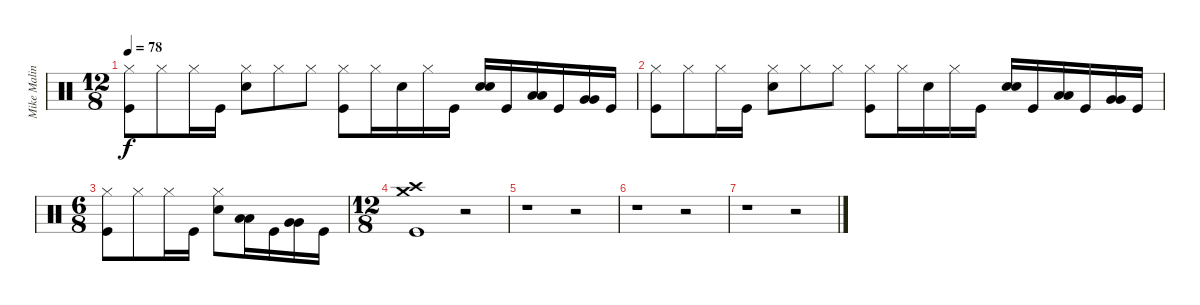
\track ("Mike Malinin (Drums)" "Mike Malin") {instrument percussion}
\staff {score}
\articulation defaults
\ts (12 8)
\tempo 78
\clef neutral
\ks c
("Hi-Hat (closed)" "Kick (hit)").8{dy f} "Hi-Hat (closed)".8 "Hi-Hat (closed)".16 "Kick (hit)".16 ("Hi-Hat (closed)" "Snare (hit) 2").8 "Hi-Hat (closed)".8 "Hi-Hat (closed)".8 ("Hi-Hat (closed)" "Kick (hit)").8 "Hi-Hat (closed)".16 "Snare (hit) 2".16 "Hi-Hat (closed)".16 "Kick (hit)".16 ("Snare (hit) 2" "Snare (hit) 2").16 "Kick (hit)".16 ("Low Tom (hit)" "Low Tom (hit)").16 "Kick (hit)".16 ("Very Low Tom (hit)" "Very Low Tom (hit)").16 "Kick (hit)".16 |
("Hi-Hat (closed)" "Kick (hit)").8 "Hi-Hat (closed)".8 "Hi-Hat (closed)".16 "Kick (hit)".16 ("Hi-Hat (closed)" "Snare (hit) 2").8 "Hi-Hat (closed)".8 "Hi-Hat (closed)".8 ("Hi-Hat (closed)" "Kick (hit)").8 "Hi-Hat (closed)".16 "Snare (hit) 2".16 "Hi-Hat (closed)".16 "Kick (hit)".16 ("Snare (hit) 2" "Snare (hit) 2").16 "Kick (hit)".16 ("Low Tom (hit)" "Low Tom (hit)").16 "Kick (hit)".16 ("Very Low Tom (hit)" "Very Low Tom (hit)").16 "Kick (hit)".16 |
\ts (6 8)
("Hi-Hat (closed)" "Kick (hit)").8 "Hi-Hat (closed)".8 "Hi-Hat (closed)".16 "Kick (hit)".16 ("Hi-Hat (closed)" "Snare (hit) 2").8 ("Low Tom (hit)" "Low Tom (hit)").16 "Kick (hit)".16 ("Very Low Tom (hit)" "Very Low Tom (hit)").16 "Kick (hit)".16 |
\ts (12 8)
("Crash medium (hit)" "Crash high (hit)" "Kick (hit)").1 r.2 |
r.1 r.2 |
r.1 r.2 |
r.1 r.2
